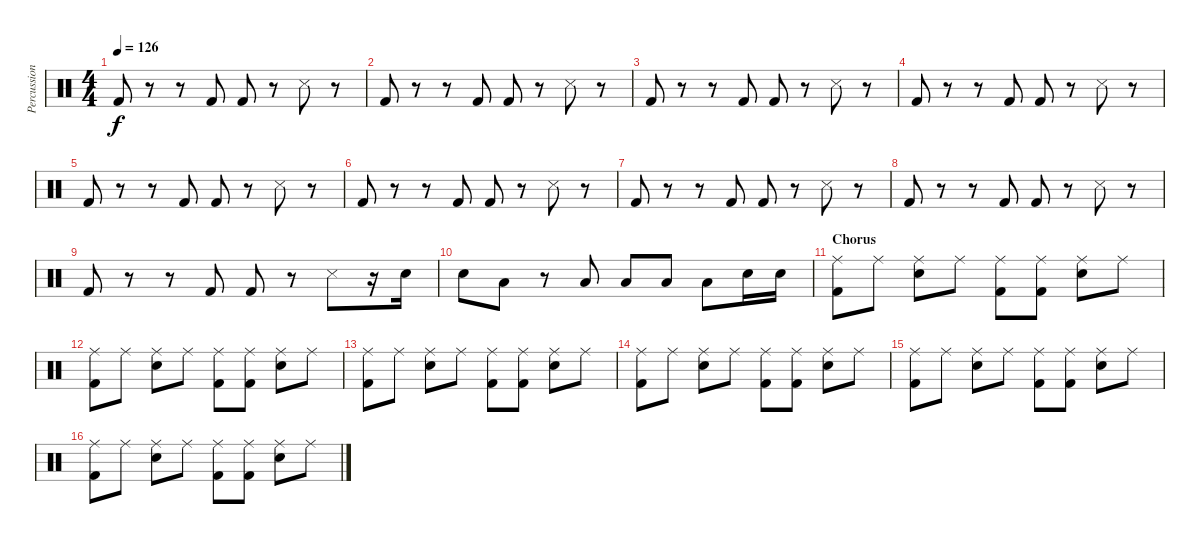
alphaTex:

\track ("Percussions" "Percussion") {instrument percussion}
\staff {score}
\articulation defaults
\ts (4 4)
\tempo 126
\clef neutral
\ks c "Kick (hit) 2".8{dy f}
r.8 r.8 "Kick (hit) 2".8 "Kick (hit) 2".8 r.8 "Snare (side stick) 3".8 r.8 |
"Kick (hit) 2".8 r.8 r.8 "Kick (hit) 2".8 "Kick (hit) 2".8 r.8 "Snare (side stick) 3".8 r.8 |
"Kick (hit) 2".8 r.8 r.8 "Kick (hit) 2".8 "Kick (hit) 2".8 r.8 "Snare (side stick) 3".8 r.8 |
"Kick (hit) 2".8 r.8 r.8 "Kick (hit) 2".8 "Kick (hit) 2".8 r.8 "Snare (side stick) 3".8 r.8 |
"Kick (hit) 2".8 r.8 r.8 "Kick (hit) 2".8 "Kick (hit) 2".8 r.8 "Snare (side stick) 3".8 r.8 |
"Kick (hit) 2".8 r.8 r.8 "Kick (hit) 2".8 "Kick (hit) 2".8 r.8 "Snare (side stick) 3".8 r.8 |
"Kick (hit) 2".8 r.8 r.8 "Kick (hit) 2".8 "Kick (hit) 2".8 r.8 "Snare (side stick) 3".8 r.8 |
"Kick (hit) 2".8 r.8 r.8 "Kick (hit) 2".8 "Kick (hit) 2".8 r.8 "Snare (side stick) 3".8 r.8 |
"Kick (hit) 2".8 r.8 r.8 "Kick (hit) 2".8 "Kick (hit) 2".8 r.8 "Snare (side stick) 3".8 r.16 "Snare (hit) 2".16 |
"Snare (hit) 2".8 "Low Tom (hit)".8 r.8 "Low Tom (hit)".8 "Low Tom (hit)".8 "Low Floor Tom (hit)".8 "Low Floor Tom (hit)".8 "Snare (hit) 2".16 "Snare (hit) 2".16 |
\section ("" "Chorus")
("Ride (middle)" "Kick (hit) 2").8 "Ride (middle)".8 ("Ride (middle)" "Snare (hit) 2").8 "Ride (middle)".8 ("Ride (middle)" "Kick (hit) 2").8 ("Ride (middle)" "Kick (hit) 2").8 ("Ride (middle)" "Snare (hit) 2").8 "Ride (middle)".8 |
("Ride (middle)" "Kick (hit) 2").8 "Ride (middle)".8 ("Ride (middle)" "Snare (hit) 2").8 "Ride (middle)".8 ("Ride (middle)" "Kick (hit) 2").8 ("Ride (middle)" "Kick (hit) 2").8 ("Ride (middle)" "Snare (hit) 2").8 "Ride (middle)".8 |
("Ride (middle)" "Kick (hit) 2").8 "Ride (middle)".8 ("Ride (middle)" "Snare (hit) 2").8 "Ride (middle)".8 ("Ride (middle)" "Kick (hit) 2").8 ("Ride (middle)" "Kick (hit) 2").8 ("Ride (middle)" "Snare (hit) 2").8 "Ride (middle)".8 |
("Ride (middle)" "Kick (hit) 2").8 "Ride (middle)".8 ("Ride (middle)" "Snare (hit) 2").8 "Ride (middle)".8 ("Ride (middle)" "Kick (hit) 2").8 ("Ride (middle)" "Kick (hit) 2").8 ("Ride (middle)" "Snare (hit) 2").8 "Ride (middle)".8 |
("Ride (middle)" "Kick (hit) 2").8 "Ride (middle)".8 ("Ride (middle)" "Snare (hit) 2").8 "Ride (middle)".8 ("Ride (middle)" "Kick (hit) 2").8 ("Ride (middle)" "Kick (hit) 2").8 ("Ride (middle)" "Snare (hit) 2").8 "Ride (middle)".8 |
("Ride (middle)" "Kick (hit) 2").8 "Ride (middle)".8 ("Ride (middle)" "Snare (hit) 2").8 "Ride (middle)".8 ("Ride (middle)" "Kick (hit) 2").8 ("Ride (middle)" "Kick (hit) 2").8 ("Ride (middle)" "Snare (hit) 2").8 "Ride (middle)".8
